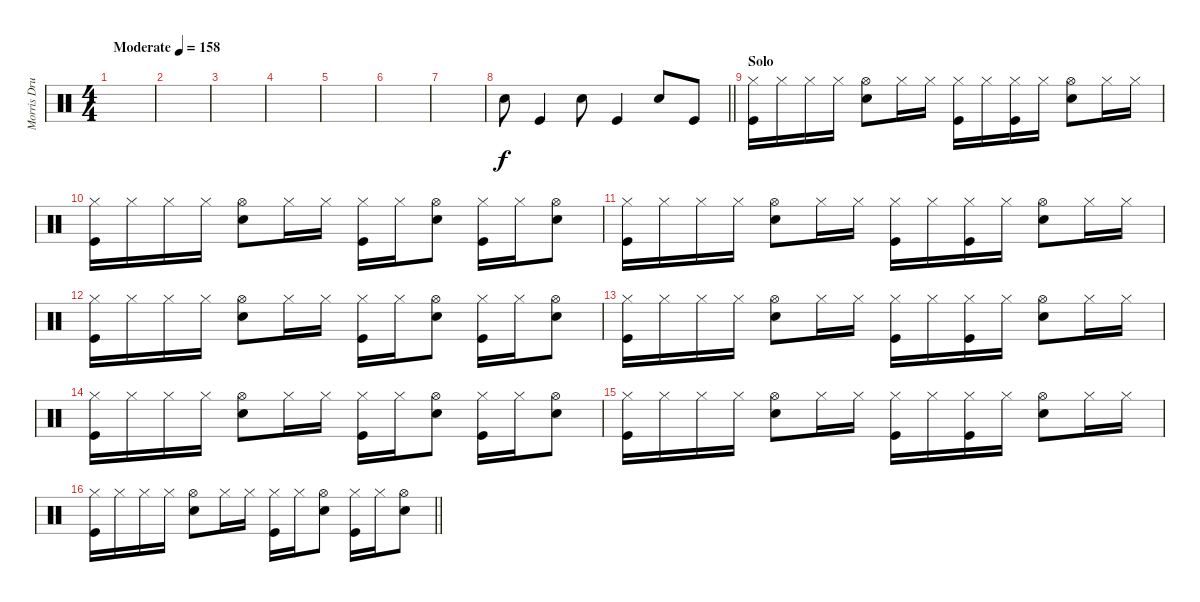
\track ("Morris Drums" "Morris Dru") {instrument percussion}
\staff {score}
\articulation defaults
\ts (4 4)
\tempo (158 "Moderate")
\clef neutral
\ks c
|
|
|
|
|
|
|
\barLineRight lightlight "Snare (hit) 2".8 "Kick (hit)".4 "Snare (hit) 2".8 "Kick (hit)".4 "Snare (hit) 2".8 "Kick (hit)".8
|
\section ("" "Solo")
("Hi-Hat (closed)" "Kick (hit)").16 "Hi-Hat (closed)".16 "Hi-Hat (closed)".16 "Hi-Hat (closed)".16 ("Hi-Hat (open)" "Snare (hit) 2").8 "Hi-Hat (closed)".16 "Hi-Hat (closed)".16 ("Hi-Hat (closed)" "Kick (hit)").16 "Hi-Hat (closed)".16 ("Hi-Hat (closed)" "Kick (hit)").16 "Hi-Hat (closed)".16 ("Hi-Hat (open)" "Snare (hit) 2").8 "Hi-Hat (closed)".16 "Hi-Hat (closed)".16 |
("Hi-Hat (closed)" "Kick (hit)").16 "Hi-Hat (closed)".16 "Hi-Hat (closed)".16 "Hi-Hat (closed)".16 ("Hi-Hat (open)" "Snare (hit) 2").8 "Hi-Hat (closed)".16 "Hi-Hat (closed)".16 ("Hi-Hat (closed)" "Kick (hit)").16 "Hi-Hat (closed)".16 ("Hi-Hat (open)" "Snare (hit) 2").8 ("Hi-Hat (closed)" "Kick (hit)").16 "Hi-Hat (closed)".16 ("Hi-Hat (open)" "Snare (hit) 2").8 |
("Hi-Hat (closed)" "Kick (hit)").16 "Hi-Hat (closed)".16 "Hi-Hat (closed)".16 "Hi-Hat (closed)".16 ("Hi-Hat (open)" "Snare (hit) 2").8 "Hi-Hat (closed)".16 "Hi-Hat (closed)".16 ("Hi-Hat (closed)" "Kick (hit)").16 "Hi-Hat (closed)".16 ("Hi-Hat (closed)" "Kick (hit)").16 "Hi-Hat (closed)".16 ("Hi-Hat (open)" "Snare (hit) 2").8 "Hi-Hat (closed)".16 "Hi-Hat (closed)".16 |
("Hi-Hat (closed)" "Kick (hit)").16 "Hi-Hat (closed)".16 "Hi-Hat (closed)".16 "Hi-Hat (closed)".16 ("Hi-Hat (open)" "Snare (hit) 2").8 "Hi-Hat (closed)".16 "Hi-Hat (closed)".16 ("Hi-Hat (closed)" "Kick (hit)").16 "Hi-Hat (closed)".16 ("Hi-Hat (open)" "Snare (hit) 2").8 ("Hi-Hat (closed)" "Kick (hit)").16 "Hi-Hat (closed)".16 ("Hi-Hat (open)" "Snare (hit) 2").8 |
("Hi-Hat (closed)" "Kick (hit)").16 "Hi-Hat (closed)".16 "Hi-Hat (closed)".16 "Hi-Hat (closed)".16 ("Hi-Hat (open)" "Snare (hit) 2").8 "Hi-Hat (closed)".16 "Hi-Hat (closed)".16 ("Hi-Hat (closed)" "Kick (hit)").16 "Hi-Hat (closed)".16 ("Hi-Hat (closed)" "Kick (hit)").16 "Hi-Hat (closed)".16 ("Hi-Hat (open)" "Snare (hit) 2").8 "Hi-Hat (closed)".16 "Hi-Hat (closed)".16 |
("Hi-Hat (closed)" "Kick (hit)").16 "Hi-Hat (closed)".16 "Hi-Hat (closed)".16 "Hi-Hat (closed)".16 ("Hi-Hat (open)" "Snare (hit) 2").8 "Hi-Hat (closed)".16 "Hi-Hat (closed)".16 ("Hi-Hat (closed)" "Kick (hit)").16 "Hi-Hat (closed)".16 ("Hi-Hat (open)" "Snare (hit) 2").8 ("Hi-Hat (closed)" "Kick (hit)").16 "Hi-Hat (closed)".16 ("Hi-Hat (open)" "Snare (hit) 2").8 |
("Hi-Hat (closed)" "Kick (hit)").16 "Hi-Hat (closed)".16 "Hi-Hat (closed)".16 "Hi-Hat (closed)".16 ("Hi-Hat (open)" "Snare (hit) 2").8 "Hi-Hat (closed)".16 "Hi-Hat (closed)".16 ("Hi-Hat (closed)" "Kick (hit)").16 "Hi-Hat (closed)".16 ("Hi-Hat (closed)" "Kick (hit)").16 "Hi-Hat (closed)".16 ("Hi-Hat (open)" "Snare (hit) 2").8 "Hi-Hat (closed)".16 "Hi-Hat (closed)".16 |
\barLineRight lightlight
("Hi-Hat (closed)" "Kick (hit)").16 "Hi-Hat (closed)".16 "Hi-Hat (closed)".16 "Hi-Hat (closed)".16 ("Hi-Hat (open)" "Snare (hit) 2").8 "Hi-Hat (closed)".16 "Hi-Hat (closed)".16 ("Hi-Hat (closed)" "Kick (hit)").16 "Hi-Hat (closed)".16 ("Hi-Hat (open)" "Snare (hit) 2").8 ("Hi-Hat (closed)" "Kick (hit)").16 "Hi-Hat (closed)".16 ("Hi-Hat (open)" "Snare (hit) 2").8
